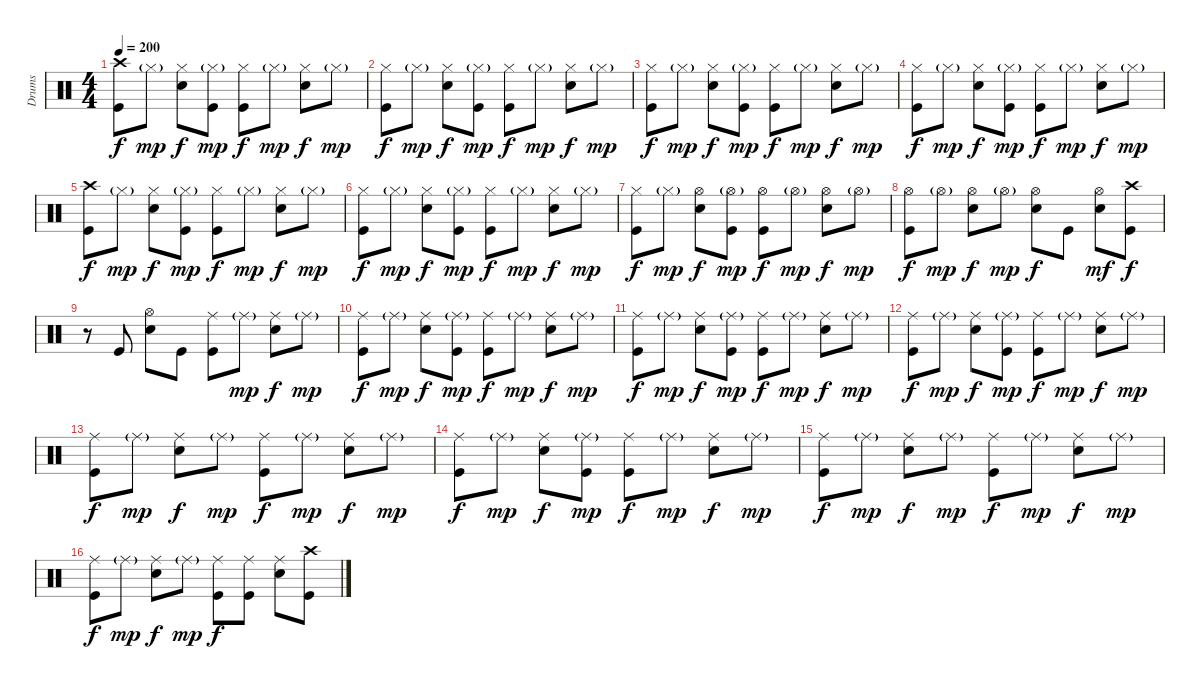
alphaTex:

\track ("Drums" "Drums") {instrument percussion}
\staff {score}
\articulation defaults
\ts (4 4)
\tempo 200
\clef neutral
\ks c
("Crash high (hit)" "Kick (hit)").8{dy f} "Hi-Hat (closed)"{g}.8{dy mp} ("Hi-Hat (closed)" "Electric Snare (hit)").8{dy f} ("Hi-Hat (closed)"{g} "Kick (hit)").8{dy mp} ("Hi-Hat (closed)" "Kick (hit)").8{dy f} "Hi-Hat (closed)"{g}.8{dy mp} ("Hi-Hat (closed)" "Electric Snare (hit)").8{dy f} "Hi-Hat (closed)"{g}.8{dy mp} |
("Hi-Hat (closed)" "Kick (hit)").8{dy f} "Hi-Hat (closed)"{g}.8{dy mp} ("Hi-Hat (closed)" "Electric Snare (hit)").8{dy f} ("Hi-Hat (closed)"{g} "Kick (hit)").8{dy mp} ("Hi-Hat (closed)" "Kick (hit)").8{dy f} "Hi-Hat (closed)"{g}.8{dy mp} ("Hi-Hat (closed)" "Electric Snare (hit)").8{dy f} "Hi-Hat (closed)"{g}.8{dy mp} |
("Hi-Hat (closed)" "Kick (hit)").8{dy f} "Hi-Hat (closed)"{g}.8{dy mp} ("Hi-Hat (closed)" "Electric Snare (hit)").8{dy f} ("Hi-Hat (closed)"{g} "Kick (hit)").8{dy mp} ("Hi-Hat (closed)" "Kick (hit)").8{dy f} "Hi-Hat (closed)"{g}.8{dy mp} ("Hi-Hat (closed)" "Electric Snare (hit)").8{dy f} "Hi-Hat (closed)"{g}.8{dy mp} |
("Hi-Hat (closed)" "Kick (hit)").8{dy f} "Hi-Hat (closed)"{g}.8{dy mp} ("Hi-Hat (closed)" "Electric Snare (hit)").8{dy f} ("Hi-Hat (closed)"{g} "Kick (hit)").8{dy mp} ("Hi-Hat (closed)" "Kick (hit)").8{dy f} "Hi-Hat (closed)"{g}.8{dy mp} ("Hi-Hat (closed)" "Electric Snare (hit)").8{dy f} "Hi-Hat (closed)"{g}.8{dy mp} |
("Crash high (hit)" "Kick (hit)").8{dy f} "Hi-Hat (closed)"{g}.8{dy mp} ("Hi-Hat (closed)" "Electric Snare (hit)").8{dy f} ("Hi-Hat (closed)"{g} "Kick (hit)").8{dy mp} ("Hi-Hat (closed)" "Kick (hit)").8{dy f} "Hi-Hat (closed)"{g}.8{dy mp} ("Hi-Hat (closed)" "Electric Snare (hit)").8{dy f} "Hi-Hat (closed)"{g}.8{dy mp} |
("Hi-Hat (closed)" "Kick (hit)").8{dy f} "Hi-Hat (closed)"{g}.8{dy mp} ("Hi-Hat (closed)" "Electric Snare (hit)").8{dy f} ("Hi-Hat (closed)"{g} "Kick (hit)").8{dy mp} ("Hi-Hat (closed)" "Kick (hit)").8{dy f} "Hi-Hat (closed)"{g}.8{dy mp} ("Hi-Hat (closed)" "Electric Snare (hit)").8{dy f} "Hi-Hat (closed)"{g}.8{dy mp} |
("Hi-Hat (closed)" "Kick (hit)").8{dy f} "Hi-Hat (closed)"{g}.8{dy mp} ("Hi-Hat (open)" "Electric Snare (hit)").8{dy f} ("Hi-Hat (open)"{g} "Kick (hit)").8{dy mp} ("Hi-Hat (open)" "Kick (hit)").8{dy f} "Hi-Hat (open)"{g}.8{dy mp} ("Hi-Hat (open)" "Electric Snare (hit)").8{dy f} "Hi-Hat (open)"{g}.8{dy mp} |
("Hi-Hat (open)" "Kick (hit)").8{dy f} "Hi-Hat (open)"{g}.8{dy mp} ("Hi-Hat (open)" "Electric Snare (hit)").8{dy f} "Hi-Hat (open)"{g}.8{dy mp} ("Hi-Hat (open)" "Electric Snare (hit)").8{dy f} "Kick (hit)".8 ("Hi-Hat (open)" "Electric Snare (hit)").8{dy mf} ("Crash high (hit)" "Kick (hit)").8{dy f} |
r.8 "Kick (hit)".8 ("Hi-Hat (open)" "Electric Snare (hit)").8 "Kick (hit)".8 ("Ride (middle)" "Kick (hit)").8 "Ride (middle)"{g}.8{dy mp} ("Ride (middle)" "Electric Snare (hit)").8{dy f} "Ride (middle)"{g}.8{dy mp} |
("Ride (middle)" "Kick (hit)").8{dy f} "Ride (middle)"{g}.8{dy mp} ("Ride (middle)" "Electric Snare (hit)").8{dy f} ("Ride (middle)"{g} "Kick (hit)").8{dy mp} ("Ride (middle)" "Kick (hit)").8{dy f} "Ride (middle)"{g}.8{dy mp} ("Ride (middle)" "Electric Snare (hit)").8{dy f} "Ride (middle)"{g}.8{dy mp} |
("Ride (middle)" "Kick (hit)").8{dy f} "Ride (middle)"{g}.8{dy mp} ("Ride (middle)" "Electric Snare (hit)").8{dy f} ("Ride (middle)"{g} "Kick (hit)").8{dy mp} ("Ride (middle)" "Kick (hit)").8{dy f} "Ride (middle)"{g}.8{dy mp} ("Ride (middle)" "Electric Snare (hit)").8{dy f} "Ride (middle)"{g}.8{dy mp} |
("Ride (middle)" "Kick (hit)").8{dy f} "Ride (middle)"{g}.8{dy mp} ("Ride (middle)" "Electric Snare (hit)").8{dy f} ("Ride (middle)"{g} "Kick (hit)").8{dy mp} ("Ride (middle)" "Kick (hit)").8{dy f} "Ride (middle)"{g}.8{dy mp} ("Ride (middle)" "Electric Snare (hit)").8{dy f} "Ride (middle)"{g}.8{dy mp} |
("Ride (middle)" "Kick (hit)").8{dy f} "Ride (middle)"{g}.8{dy mp} ("Ride (middle)" "Electric Snare (hit)").8{dy f} "Ride (middle)"{g}.8{dy mp} ("Ride (middle)" "Kick (hit)").8{dy f} "Ride (middle)"{g}.8{dy mp} ("Ride (middle)" "Electric Snare (hit)").8{dy f} "Ride (middle)"{g}.8{dy mp} |
("Ride (middle)" "Kick (hit)").8{dy f} "Ride (middle)"{g}.8{dy mp} ("Ride (middle)" "Electric Snare (hit)").8{dy f} ("Ride (middle)"{g} "Kick (hit)").8{dy mp} ("Ride (middle)" "Kick (hit)").8{dy f} "Ride (middle)"{g}.8{dy mp} ("Ride (middle)" "Electric Snare (hit)").8{dy f} "Ride (middle)"{g}.8{dy mp} |
("Ride (middle)" "Kick (hit)").8{dy f} "Ride (middle)"{g}.8{dy mp} ("Ride (middle)" "Electric Snare (hit)").8{dy f} "Ride (middle)"{g}.8{dy mp} ("Ride (middle)" "Kick (hit)").8{dy f} "Ride (middle)"{g}.8{dy mp} ("Ride (middle)" "Electric Snare (hit)").8{dy f} "Ride (middle)"{g}.8{dy mp} |
("Ride (middle)" "Kick (hit)").8{dy f} "Ride (middle)"{g}.8{dy mp} ("Ride (middle)" "Electric Snare (hit)").8{dy f} "Ride (middle)"{g}.8{dy mp} ("Ride (middle)" "Kick (hit)").8{dy f} ("Ride (middle)" "Kick (hit)").8 ("Ride (middle)" "Electric Snare (hit)").8 ("Crash high (hit)" "Kick (hit)").8
